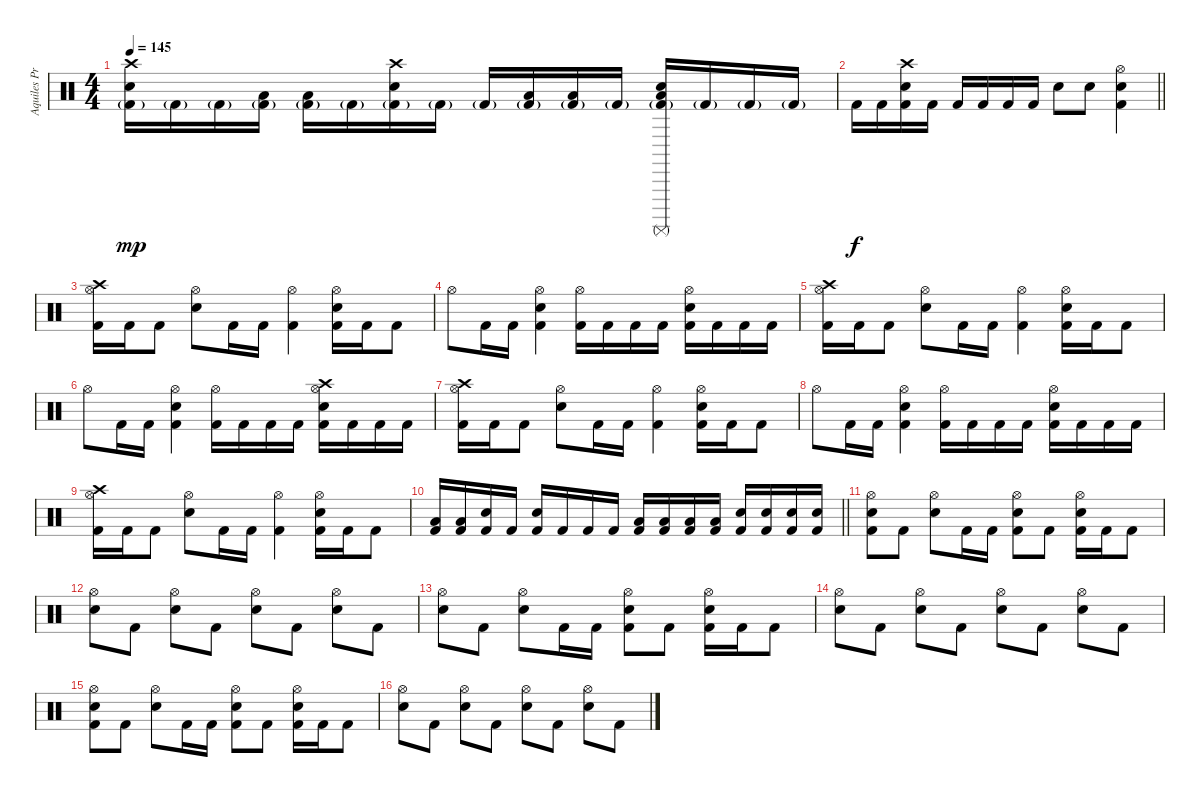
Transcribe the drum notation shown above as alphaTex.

\track ("Aquiles Priester" "Aquiles Pr") {instrument percussion}
\staff {score}
\articulation defaults
\ts (4 4)
\tempo 145
\clef neutral
\ks c
("Crash high (hit)" "Electric Snare (hit)" "Kick (hit) 2"{g}).16{dy mp} "Kick (hit) 2"{g}.16 "Kick (hit) 2"{g}.16 ("Low Tom (hit)" "Kick (hit) 2"{g}).16 ("Low Tom (hit)" "Kick (hit) 2"{g}).16 "Kick (hit) 2"{g}.16 ("Crash high (hit)" "Electric Snare (hit)" "Kick (hit) 2"{g}).16 "Kick (hit) 2"{g}.16 "Kick (hit) 2"{g}.16 ("Low Tom (hit)" "Kick (hit) 2"{g}).16 ("Low Tom (hit)" "Kick (hit) 2"{g}).16 "Kick (hit) 2"{g}.16 ("Surdo (mute)" "Electric Snare (hit)" "Low Tom (hit)" "Kick (hit) 2"{g}).16 "Kick (hit) 2"{g}.16 "Kick (hit) 2"{g}.16 "Kick (hit) 2"{g}.16 |
\barLineRight lightlight "Kick (hit) 2".16{dy f} "Kick (hit) 2".16
("Crash high (hit)" "Electric Snare (hit)" "Kick (hit) 2").16 "Kick (hit) 2".16 "Kick (hit) 2".16 "Kick (hit) 2".16 "Kick (hit) 2".16 "Kick (hit) 2".16 "Electric Snare (hit)".8 "Electric Snare (hit)".8 ("Hi-Hat (open)" "Electric Snare (hit)" "Kick (hit) 2").4 |
("Crash high (hit)" "Hi-Hat (open)" "Kick (hit) 2").16 "Kick (hit) 2".16 "Kick (hit) 2".8 ("Hi-Hat (open)" "Electric Snare (hit)").8 "Kick (hit) 2".16 "Kick (hit) 2".16 ("Hi-Hat (open)" "Kick (hit) 2").4 ("Hi-Hat (open)" "Electric Snare (hit)" "Kick (hit) 2").16 "Kick (hit) 2".16 "Kick (hit) 2".8 |
"Hi-Hat (open)".8 "Kick (hit) 2".16 "Kick (hit) 2".16 ("Hi-Hat (open)" "Electric Snare (hit)" "Kick (hit) 2").4 ("Hi-Hat (open)" "Kick (hit) 2").16 "Kick (hit) 2".16 "Kick (hit) 2".16 "Kick (hit) 2".16 ("Hi-Hat (open)" "Electric Snare (hit)" "Kick (hit) 2").16 "Kick (hit) 2".16 "Kick (hit) 2".16 "Kick (hit) 2".16 |
("Crash high (hit)" "Hi-Hat (open)" "Kick (hit) 2").16 "Kick (hit) 2".16 "Kick (hit) 2".8 ("Hi-Hat (open)" "Electric Snare (hit)").8 "Kick (hit) 2".16 "Kick (hit) 2".16 ("Hi-Hat (open)" "Kick (hit) 2").4 ("Hi-Hat (open)" "Electric Snare (hit)" "Kick (hit) 2").16 "Kick (hit) 2".16 "Kick (hit) 2".8 |
"Hi-Hat (open)".8 "Kick (hit) 2".16 "Kick (hit) 2".16 ("Hi-Hat (open)" "Electric Snare (hit)" "Kick (hit) 2").4 ("Hi-Hat (open)" "Kick (hit) 2").16 "Kick (hit) 2".16 "Kick (hit) 2".16 "Kick (hit) 2".16 ("Crash high (hit)" "Hi-Hat (open)" "Electric Snare (hit)" "Kick (hit) 2").16 "Kick (hit) 2".16 "Kick (hit) 2".16 "Kick (hit) 2".16 |
("Crash high (hit)" "Hi-Hat (open)" "Kick (hit) 2").16 "Kick (hit) 2".16 "Kick (hit) 2".8 ("Hi-Hat (open)" "Electric Snare (hit)").8 "Kick (hit) 2".16 "Kick (hit) 2".16 ("Hi-Hat (open)" "Kick (hit) 2").4 ("Hi-Hat (open)" "Electric Snare (hit)" "Kick (hit) 2").16 "Kick (hit) 2".16 "Kick (hit) 2".8 |
"Hi-Hat (open)".8 "Kick (hit) 2".16 "Kick (hit) 2".16 ("Hi-Hat (open)" "Electric Snare (hit)" "Kick (hit) 2").4 ("Hi-Hat (open)" "Kick (hit) 2").16 "Kick (hit) 2".16 "Kick (hit) 2".16 "Kick (hit) 2".16 ("Hi-Hat (open)" "Electric Snare (hit)" "Kick (hit) 2").16 "Kick (hit) 2".16 "Kick (hit) 2".16 "Kick (hit) 2".16 |
("Crash high (hit)" "Hi-Hat (open)" "Kick (hit) 2").16 "Kick (hit) 2".16 "Kick (hit) 2".8 ("Hi-Hat (open)" "Electric Snare (hit)").8 "Kick (hit) 2".16 "Kick (hit) 2".16 ("Hi-Hat (open)" "Kick (hit) 2").4 ("Hi-Hat (open)" "Electric Snare (hit)" "Kick (hit) 2").16 "Kick (hit) 2".16 "Kick (hit) 2".8 |
\barLineRight lightlight
("Low Tom (hit)" "Kick (hit) 2").16 ("Low Tom (hit)" "Kick (hit) 2").16 ("Electric Snare (hit)" "Kick (hit) 2").16 "Kick (hit) 2".16 ("Electric Snare (hit)" "Kick (hit) 2").16 "Kick (hit) 2".16 "Kick (hit) 2".16 "Kick (hit) 2".16 ("Low Tom (hit)" "Kick (hit) 2").16 ("Low Tom (hit)" "Kick (hit) 2").16 ("Low Tom (hit)" "Kick (hit) 2").16 ("Low Tom (hit)" "Kick (hit) 2").16 ("Electric Snare (hit)" "Kick (hit) 2").16 ("Electric Snare (hit)" "Kick (hit) 2").16 ("Electric Snare (hit)" "Kick (hit) 2").16 ("Electric Snare (hit)" "Kick (hit) 2").16 |
("Hi-Hat (open)" "Electric Snare (hit)" "Kick (hit) 2").8 "Kick (hit) 2".8 ("Hi-Hat (open)" "Electric Snare (hit)").8 "Kick (hit) 2".16 "Kick (hit) 2".16 ("Hi-Hat (open)" "Electric Snare (hit)" "Kick (hit) 2").8 "Kick (hit) 2".8 ("Hi-Hat (open)" "Electric Snare (hit)" "Kick (hit) 2").16 "Kick (hit) 2".16 "Kick (hit) 2".8 |
("Hi-Hat (open)" "Electric Snare (hit)").8 "Kick (hit) 2".8 ("Hi-Hat (open)" "Electric Snare (hit)").8 "Kick (hit) 2".8 ("Hi-Hat (open)" "Electric Snare (hit)").8 "Kick (hit) 2".8 ("Hi-Hat (open)" "Electric Snare (hit)").8 "Kick (hit) 2".8 |
("Hi-Hat (open)" "Electric Snare (hit)").8 "Kick (hit) 2".8 ("Hi-Hat (open)" "Electric Snare (hit)").8 "Kick (hit) 2".16 "Kick (hit) 2".16 ("Hi-Hat (open)" "Electric Snare (hit)" "Kick (hit) 2").8 "Kick (hit) 2".8 ("Hi-Hat (open)" "Electric Snare (hit)" "Kick (hit) 2").16 "Kick (hit) 2".16 "Kick (hit) 2".8 |
("Hi-Hat (open)" "Electric Snare (hit)").8 "Kick (hit) 2".8 ("Hi-Hat (open)" "Electric Snare (hit)").8 "Kick (hit) 2".8 ("Hi-Hat (open)" "Electric Snare (hit)").8 "Kick (hit) 2".8 ("Hi-Hat (open)" "Electric Snare (hit)").8 "Kick (hit) 2".8 |
("Hi-Hat (open)" "Electric Snare (hit)" "Kick (hit) 2").8 "Kick (hit) 2".8 ("Hi-Hat (open)" "Electric Snare (hit)").8 "Kick (hit) 2".16 "Kick (hit) 2".16 ("Hi-Hat (open)" "Electric Snare (hit)" "Kick (hit) 2").8 "Kick (hit) 2".8 ("Hi-Hat (open)" "Electric Snare (hit)" "Kick (hit) 2").16 "Kick (hit) 2".16 "Kick (hit) 2".8 |
("Hi-Hat (open)" "Electric Snare (hit)").8 "Kick (hit) 2".8 ("Hi-Hat (open)" "Electric Snare (hit)").8 "Kick (hit) 2".8 ("Hi-Hat (open)" "Electric Snare (hit)").8 "Kick (hit) 2".8 ("Hi-Hat (open)" "Electric Snare (hit)").8 "Kick (hit) 2".8
